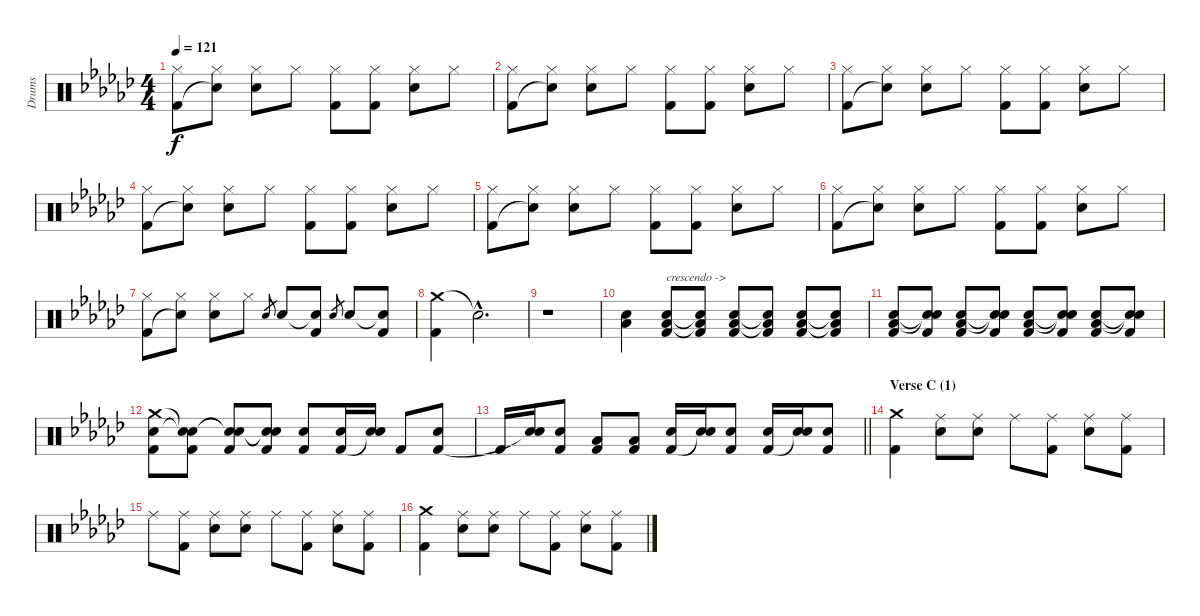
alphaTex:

\track ("Drums" "Drums") {instrument percussion}
\staff {score}
\articulation defaults
\ts (4 4)
\tempo 121
\clef neutral
\ks ebminor
("Hi-Hat (closed)" "Kick (hit) 2").8{dy f} ("Hi-Hat (closed)" "Snare (hit)"{t}).8 ("Hi-Hat (closed)" "Electric Snare (hit)").8 "Hi-Hat (closed)".8 ("Hi-Hat (closed)" "Kick (hit) 2").8 ("Hi-Hat (closed)" "Kick (hit) 2").8 ("Hi-Hat (closed)" "Electric Snare (hit)").8 "Hi-Hat (closed)".8 |
("Hi-Hat (closed)" "Kick (hit) 2").8 ("Hi-Hat (closed)" "Snare (hit)"{t}).8 ("Hi-Hat (closed)" "Electric Snare (hit)").8 "Hi-Hat (closed)".8 ("Hi-Hat (closed)" "Kick (hit) 2").8 ("Hi-Hat (closed)" "Kick (hit) 2").8 ("Hi-Hat (closed)" "Electric Snare (hit)").8 "Hi-Hat (closed)".8 |
("Hi-Hat (closed)" "Kick (hit) 2").8 ("Hi-Hat (closed)" "Snare (hit)"{t}).8 ("Hi-Hat (closed)" "Electric Snare (hit)").8 "Hi-Hat (closed)".8 ("Hi-Hat (closed)" "Kick (hit) 2").8 ("Hi-Hat (closed)" "Kick (hit) 2").8 ("Hi-Hat (closed)" "Electric Snare (hit)").8 "Hi-Hat (closed)".8 |
("Hi-Hat (closed)" "Kick (hit) 2").8 ("Hi-Hat (closed)" "Snare (hit)"{t}).8 ("Hi-Hat (closed)" "Electric Snare (hit)").8 "Hi-Hat (closed)".8 ("Hi-Hat (closed)" "Kick (hit) 2").8 ("Hi-Hat (closed)" "Kick (hit) 2").8 ("Hi-Hat (closed)" "Electric Snare (hit)").8 "Hi-Hat (closed)".8 |
("Hi-Hat (closed)" "Kick (hit) 2").8 ("Hi-Hat (closed)" "Snare (hit)"{t}).8 ("Hi-Hat (closed)" "Electric Snare (hit)").8 "Hi-Hat (closed)".8 ("Hi-Hat (closed)" "Kick (hit) 2").8 ("Hi-Hat (closed)" "Kick (hit) 2").8 ("Hi-Hat (closed)" "Electric Snare (hit)").8 "Hi-Hat (closed)".8 |
("Hi-Hat (closed)" "Kick (hit) 2").8 ("Hi-Hat (closed)" "Snare (hit)"{t}).8 ("Hi-Hat (closed)" "Electric Snare (hit)").8 "Hi-Hat (closed)".8 ("Hi-Hat (closed)" "Kick (hit) 2").8 ("Hi-Hat (closed)" "Kick (hit) 2").8 ("Hi-Hat (closed)" "Electric Snare (hit)").8 "Hi-Hat (closed)".8 |
("Hi-Hat (closed)" "Kick (hit) 2").8 ("Hi-Hat (closed)" "Snare (hit)"{t}).8 ("Hi-Hat (closed)" "Electric Snare (hit)").8 "Hi-Hat (closed)".8 "Electric Snare (hit)".8{gr} "Electric Snare (hit)".8 ("Snare (hit)"{t} "Kick (hit) 2").8 "Electric Snare (hit)".8{gr} "Electric Snare (hit)".8 ("Snare (hit)"{t} "Kick (hit) 2").8 |
("Crash medium (hit)" "Kick (hit) 2").4 "Snare (hit)"{hac t}.2{d} |
r.1 |
("Electric Snare (hit)" "Low Floor Tom (hit)").4 ("Electric Snare (hit)" "Low Floor Tom (hit)" "Kick (hit) 2").8{txt "crescendo ->"} ("Electric Snare (hit)"{t} "Low Floor Tom (hit)"{t} "Kick (hit) 2").8 ("Electric Snare (hit)" "Low Floor Tom (hit)" "Kick (hit) 2").8 ("Electric Snare (hit)"{t} "Low Floor Tom (hit)"{t} "Kick (hit) 2").8 ("Electric Snare (hit)" "Low Floor Tom (hit)" "Kick (hit) 2").8 ("Electric Snare (hit)"{t} "Low Floor Tom (hit)"{t} "Kick (hit) 2").8 |
("Electric Snare (hit)" "Low Floor Tom (hit)" "Kick (hit) 2").8 ("Snare (hit)"{t} "Snare (hit)"{t} "Kick (hit) 2").8 ("Electric Snare (hit)" "Low Floor Tom (hit)" "Kick (hit) 2").8 ("Snare (hit)"{t} "Snare (hit)"{t} "Kick (hit) 2").8 ("Electric Snare (hit)" "Low Floor Tom (hit)" "Kick (hit) 2").8 ("Snare (hit)"{t} "Snare (hit)"{t} "Kick (hit) 2").8 ("Electric Snare (hit)" "Low Floor Tom (hit)" "Kick (hit) 2").8 ("Snare (hit)"{t} "Snare (hit)"{t} "Kick (hit) 2").8 |
("Crash medium (hit)" "Electric Snare (hit)" "Kick (hit) 2").8 ("Snare (hit)"{t} "Snare (hit)"{t} "Kick (hit) 2").8 ("Snare (hit)"{t} "Snare (hit)"{t} "Kick (hit) 2").8 ("Snare (hit)"{t} "Snare (hit)"{t} "Kick (hit) 2").8 ("Electric Snare (hit)" "Kick (hit) 2").8 ("Electric Snare (hit)" "Kick (hit) 2").16 ("Electric Snare (hit)" "Snare (hit)"{t}).16 "Kick (hit) 2".8 ("Electric Snare (hit)" "Kick (hit) 2").8 |
\barLineRight lightlight "Kick (hit) 2".16
("Electric Snare (hit)" "Snare (hit)"{t}).16 ("Electric Snare (hit)" "Kick (hit) 2").8 ("Low Floor Tom (hit)" "Kick (hit) 2").8 ("Low Floor Tom (hit)" "Kick (hit) 2").8 ("Electric Snare (hit)" "Kick (hit) 2").16 ("Electric Snare (hit)" "Snare (hit)"{t}).16 ("Electric Snare (hit)" "Kick (hit) 2").8 ("Electric Snare (hit)" "Kick (hit) 2").16 ("Electric Snare (hit)" "Snare (hit)"{t}).16 ("Electric Snare (hit)" "Kick (hit) 2").8 |
\section ("" "Verse C (1)")
("Crash medium (hit)" "Kick (hit) 2").4 ("Ride (middle)" "Electric Snare (hit)").8 ("Ride (middle)" "Electric Snare (hit)").8 "Ride (middle)".8 ("Ride (middle)" "Kick (hit) 2").8 ("Ride (middle)" "Electric Snare (hit)").8 ("Ride (middle)" "Kick (hit) 2").8 |
"Ride (middle)".8 ("Ride (middle)" "Kick (hit) 2").8 ("Ride (middle)" "Electric Snare (hit)").8 ("Ride (middle)" "Electric Snare (hit)").8 "Ride (middle)".8 ("Ride (middle)" "Kick (hit) 2").8 ("Ride (middle)" "Electric Snare (hit)").8 ("Ride (middle)" "Kick (hit) 2").8 |
("Crash medium (hit)" "Kick (hit) 2").4 ("Ride (middle)" "Electric Snare (hit)").8 ("Ride (middle)" "Electric Snare (hit)").8 "Ride (middle)".8 ("Ride (middle)" "Kick (hit) 2").8 ("Ride (middle)" "Electric Snare (hit)").8 ("Ride (middle)" "Kick (hit) 2").8
